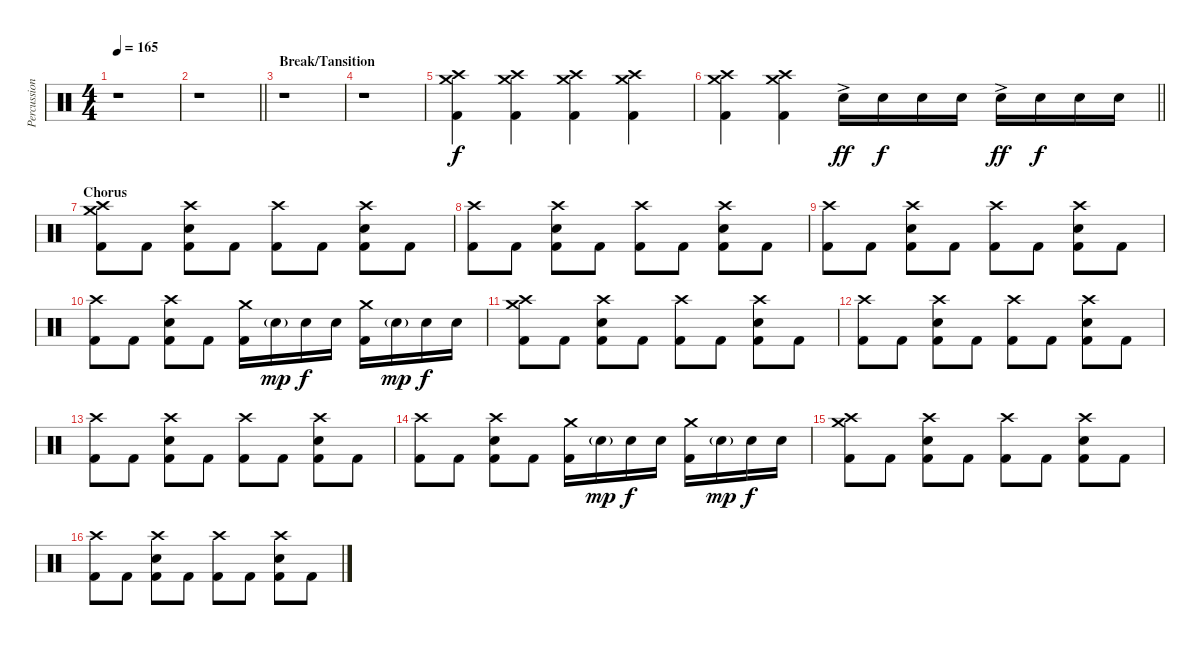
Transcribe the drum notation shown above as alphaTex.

\track ("Percussion" "Percussion") {instrument percussion}
\staff {score}
\articulation defaults
\ts (4 4)
\tempo 165
\clef neutral
\ks c
r.1{dy f} |
\barLineRight lightlight
r.1 |
\section ("" "Break/Tansition")
r.1 |
r.1 |
("Crash medium (hit)" "Crash high (hit)" "Kick (hit) 2").4 ("Crash medium (hit)" "Crash high (hit)" "Kick (hit) 2").4 ("Crash medium (hit)" "Crash high (hit)" "Kick (hit) 2").4 ("Crash medium (hit)" "Crash high (hit)" "Kick (hit) 2").4 |
\barLineRight lightlight
("Crash medium (hit)" "Crash high (hit)" "Kick (hit) 2").4 ("Crash medium (hit)" "Crash high (hit)" "Kick (hit) 2").4 "Snare (hit) 2"{ac}.16{dy ff} "Snare (hit) 2".16{dy f} "Snare (hit) 2".16 "Snare (hit) 2".16 "Snare (hit) 2"{ac}.16{dy ff} "Snare (hit) 2".16{dy f} "Snare (hit) 2".16 "Snare (hit) 2".16 |
\section ("" "Chorus")
("Crash high (hit)" "Crash medium (hit)" "Kick (hit) 2").8 "Kick (hit) 2".8 ("Crash high (hit)" "Snare (hit) 2" "Kick (hit) 2").8 "Kick (hit) 2".8 ("Crash high (hit)" "Kick (hit) 2").8 "Kick (hit) 2".8 ("Crash high (hit)" "Snare (hit) 2" "Kick (hit) 2").8 "Kick (hit) 2".8 |
("Crash high (hit)" "Kick (hit) 2").8 "Kick (hit) 2".8 ("Crash high (hit)" "Snare (hit) 2" "Kick (hit) 2").8 "Kick (hit) 2".8 ("Crash high (hit)" "Kick (hit) 2").8 "Kick (hit) 2".8 ("Crash high (hit)" "Snare (hit) 2" "Kick (hit) 2").8 "Kick (hit) 2".8 |
("Crash high (hit)" "Kick (hit) 2").8 "Kick (hit) 2".8 ("Crash high (hit)" "Snare (hit) 2" "Kick (hit) 2").8 "Kick (hit) 2".8 ("Crash high (hit)" "Kick (hit) 2").8 "Kick (hit) 2".8 ("Crash high (hit)" "Snare (hit) 2" "Kick (hit) 2").8 "Kick (hit) 2".8 |
("Crash high (hit)" "Kick (hit) 2").8 "Kick (hit) 2".8 ("Crash high (hit)" "Snare (hit) 2" "Kick (hit) 2").8 "Kick (hit) 2".8 ("Crash medium (hit)" "Kick (hit) 2").16 "Snare (hit) 2"{g}.16{dy mp} "Snare (hit) 2".16{dy f} "Snare (hit) 2".16 ("Crash medium (hit)" "Kick (hit) 2").16 "Snare (hit) 2"{g}.16{dy mp} "Snare (hit) 2".16{dy f} "Snare (hit) 2".16 |
("Crash high (hit)" "Crash medium (hit)" "Kick (hit) 2").8 "Kick (hit) 2".8 ("Crash high (hit)" "Snare (hit) 2" "Kick (hit) 2").8 "Kick (hit) 2".8 ("Crash high (hit)" "Kick (hit) 2").8 "Kick (hit) 2".8 ("Crash high (hit)" "Snare (hit) 2" "Kick (hit) 2").8 "Kick (hit) 2".8 |
("Crash high (hit)" "Kick (hit) 2").8 "Kick (hit) 2".8 ("Crash high (hit)" "Snare (hit) 2" "Kick (hit) 2").8 "Kick (hit) 2".8 ("Crash high (hit)" "Kick (hit) 2").8 "Kick (hit) 2".8 ("Crash high (hit)" "Snare (hit) 2" "Kick (hit) 2").8 "Kick (hit) 2".8 |
("Crash high (hit)" "Kick (hit) 2").8 "Kick (hit) 2".8 ("Crash high (hit)" "Snare (hit) 2" "Kick (hit) 2").8 "Kick (hit) 2".8 ("Crash high (hit)" "Kick (hit) 2").8 "Kick (hit) 2".8 ("Crash high (hit)" "Snare (hit) 2" "Kick (hit) 2").8 "Kick (hit) 2".8 |
("Crash high (hit)" "Kick (hit) 2").8 "Kick (hit) 2".8 ("Crash high (hit)" "Snare (hit) 2" "Kick (hit) 2").8 "Kick (hit) 2".8 ("Crash medium (hit)" "Kick (hit) 2").16 "Snare (hit) 2"{g}.16{dy mp} "Snare (hit) 2".16{dy f} "Snare (hit) 2".16 ("Crash medium (hit)" "Kick (hit) 2").16 "Snare (hit) 2"{g}.16{dy mp} "Snare (hit) 2".16{dy f} "Snare (hit) 2".16 |
("Crash high (hit)" "Crash medium (hit)" "Kick (hit) 2").8 "Kick (hit) 2".8 ("Crash high (hit)" "Snare (hit) 2" "Kick (hit) 2").8 "Kick (hit) 2".8 ("Crash high (hit)" "Kick (hit) 2").8 "Kick (hit) 2".8 ("Crash high (hit)" "Snare (hit) 2" "Kick (hit) 2").8 "Kick (hit) 2".8 |
("Crash high (hit)" "Kick (hit) 2").8 "Kick (hit) 2".8 ("Crash high (hit)" "Snare (hit) 2" "Kick (hit) 2").8 "Kick (hit) 2".8 ("Crash high (hit)" "Kick (hit) 2").8 "Kick (hit) 2".8 ("Crash high (hit)" "Snare (hit) 2" "Kick (hit) 2").8 "Kick (hit) 2".8
